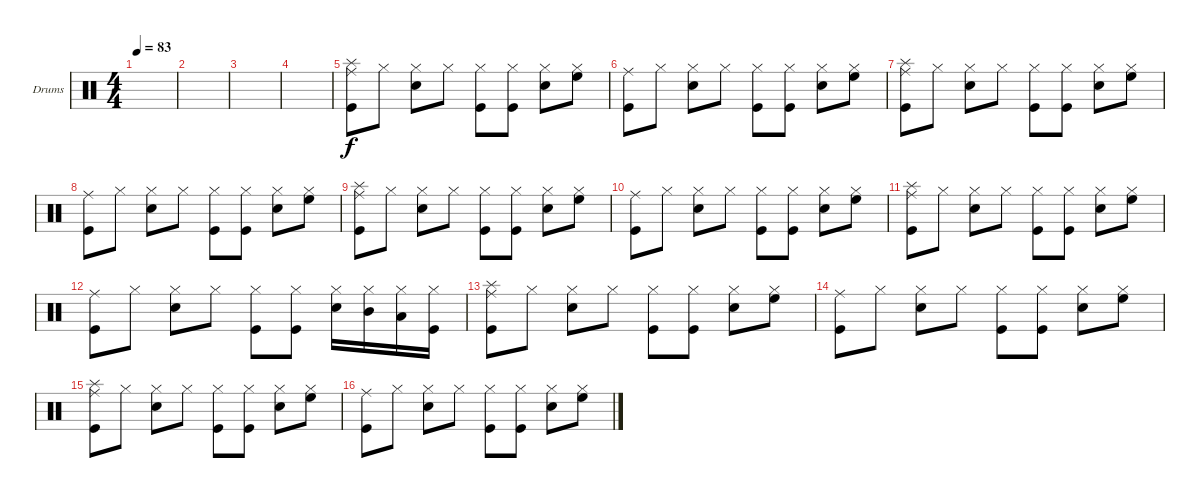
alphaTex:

\defaultSystemsLayout 4
\bracketExtendMode groupsimilarinstruments
\firstSystemTrackNameOrientation horizontal
\otherSystemsTrackNameOrientation horizontal
\track ("Reza" "Drums") {instrument percussion}
\staff {score}
\articulation defaults
\ts (4 4)
\tempo 83
\clef neutral
\scale
0.472222
\ks c
|
\scale
0.263889 |
\scale
0.263889 |
\scale
0.333333 |
\scale
0.333333 ("Kick (hit)" "Splash (hit)" "Ride (middle)").8 "Hi-Hat (closed)".8 ("Hi-Hat (closed)" "Snare (hit) 2").8 "Hi-Hat (closed)".8 ("Hi-Hat (closed)" "Kick (hit)").8 ("Hi-Hat (closed)" "Kick (hit)").8 ("Hi-Hat (closed)" "Snare (hit) 2").8 ("Hi-Hat (closed)" "High Floor Tom (hit)").8 |
\scale
0.333333 ("Kick (hit)" "Ride (middle)").8 "Hi-Hat (closed)".8 ("Hi-Hat (closed)" "Snare (hit) 2").8 "Hi-Hat (closed)".8 ("Hi-Hat (closed)" "Kick (hit)").8 ("Hi-Hat (closed)" "Kick (hit)").8 ("Hi-Hat (closed)" "Snare (hit) 2").8 ("Hi-Hat (closed)" "High Floor Tom (hit)").8 |
\scale
0.333333 ("Kick (hit)" "Splash (hit)" "Ride (middle)").8 "Hi-Hat (closed)".8 ("Hi-Hat (closed)" "Snare (hit) 2").8 "Hi-Hat (closed)".8 ("Hi-Hat (closed)" "Kick (hit)").8 ("Hi-Hat (closed)" "Kick (hit)").8 ("Hi-Hat (closed)" "Snare (hit) 2").8 ("Hi-Hat (closed)" "High Floor Tom (hit)").8 |
\scale
0.333333 ("Kick (hit)" "Ride (middle)").8 "Hi-Hat (closed)".8 ("Hi-Hat (closed)" "Snare (hit) 2").8 "Hi-Hat (closed)".8 ("Hi-Hat (closed)" "Kick (hit)").8 ("Hi-Hat (closed)" "Kick (hit)").8 ("Hi-Hat (closed)" "Snare (hit) 2").8 ("Hi-Hat (closed)" "High Floor Tom (hit)").8 |
\scale
0.333333 ("Kick (hit)" "Splash (hit)" "Ride (middle)").8 "Hi-Hat (closed)".8 ("Hi-Hat (closed)" "Snare (hit) 2").8 "Hi-Hat (closed)".8 ("Hi-Hat (closed)" "Kick (hit)").8 ("Hi-Hat (closed)" "Kick (hit)").8 ("Hi-Hat (closed)" "Snare (hit) 2").8 ("Hi-Hat (closed)" "High Floor Tom (hit)").8 |
\scale
0.333333 ("Kick (hit)" "Ride (middle)").8 "Hi-Hat (closed)".8 ("Hi-Hat (closed)" "Snare (hit) 2").8 "Hi-Hat (closed)".8 ("Hi-Hat (closed)" "Kick (hit)").8 ("Hi-Hat (closed)" "Kick (hit)").8 ("Hi-Hat (closed)" "Snare (hit) 2").8 ("Hi-Hat (closed)" "High Floor Tom (hit)").8 |
\scale
0.333333 ("Kick (hit)" "Splash (hit)" "Ride (middle)").8 "Hi-Hat (closed)".8 ("Hi-Hat (closed)" "Snare (hit) 2").8 "Hi-Hat (closed)".8 ("Hi-Hat (closed)" "Kick (hit)").8 ("Hi-Hat (closed)" "Kick (hit)").8 ("Hi-Hat (closed)" "Snare (hit) 2").8 ("Hi-Hat (closed)" "High Floor Tom (hit)").8 |
\scale
0.333333 ("Kick (hit)" "Ride (middle)").8 "Hi-Hat (closed)".8 ("Hi-Hat (closed)" "Snare (hit) 2").8 "Hi-Hat (closed)".8 ("Hi-Hat (closed)" "Kick (hit)").8 ("Hi-Hat (closed)" "Kick (hit)").8 ("Hi-Hat (closed)" "Snare (hit) 2").16 ("Hi-Hat (closed)" "Mid Tom (hit)").16 ("Hi-Hat (closed)" "Low Tom (hit)").16 ("Hi-Hat (closed)" "Kick (hit)").16 |
("Kick (hit)" "Splash (hit)" "Ride (middle)").8 "Hi-Hat (closed)".8 ("Hi-Hat (closed)" "Snare (hit) 2").8 "Hi-Hat (closed)".8 ("Hi-Hat (closed)" "Kick (hit)").8 ("Hi-Hat (closed)" "Kick (hit)").8 ("Hi-Hat (closed)" "Snare (hit) 2").8 ("Hi-Hat (closed)" "High Floor Tom (hit)").8 |
("Kick (hit)" "Ride (middle)").8 "Hi-Hat (closed)".8 ("Hi-Hat (closed)" "Snare (hit) 2").8 "Hi-Hat (closed)".8 ("Hi-Hat (closed)" "Kick (hit)").8 ("Hi-Hat (closed)" "Kick (hit)").8 ("Hi-Hat (closed)" "Snare (hit) 2").8 ("Hi-Hat (closed)" "High Floor Tom (hit)").8 |
("Kick (hit)" "Splash (hit)" "Ride (middle)").8 "Hi-Hat (closed)".8 ("Hi-Hat (closed)" "Snare (hit) 2").8 "Hi-Hat (closed)".8 ("Hi-Hat (closed)" "Kick (hit)").8 ("Hi-Hat (closed)" "Kick (hit)").8 ("Hi-Hat (closed)" "Snare (hit) 2").8 ("Hi-Hat (closed)" "High Floor Tom (hit)").8 |
("Kick (hit)" "Ride (middle)").8 "Hi-Hat (closed)".8 ("Hi-Hat (closed)" "Snare (hit) 2").8 "Hi-Hat (closed)".8 ("Hi-Hat (closed)" "Kick (hit)").8 ("Hi-Hat (closed)" "Kick (hit)").8 ("Hi-Hat (closed)" "Snare (hit) 2").8 ("Hi-Hat (closed)" "High Floor Tom (hit)").8
